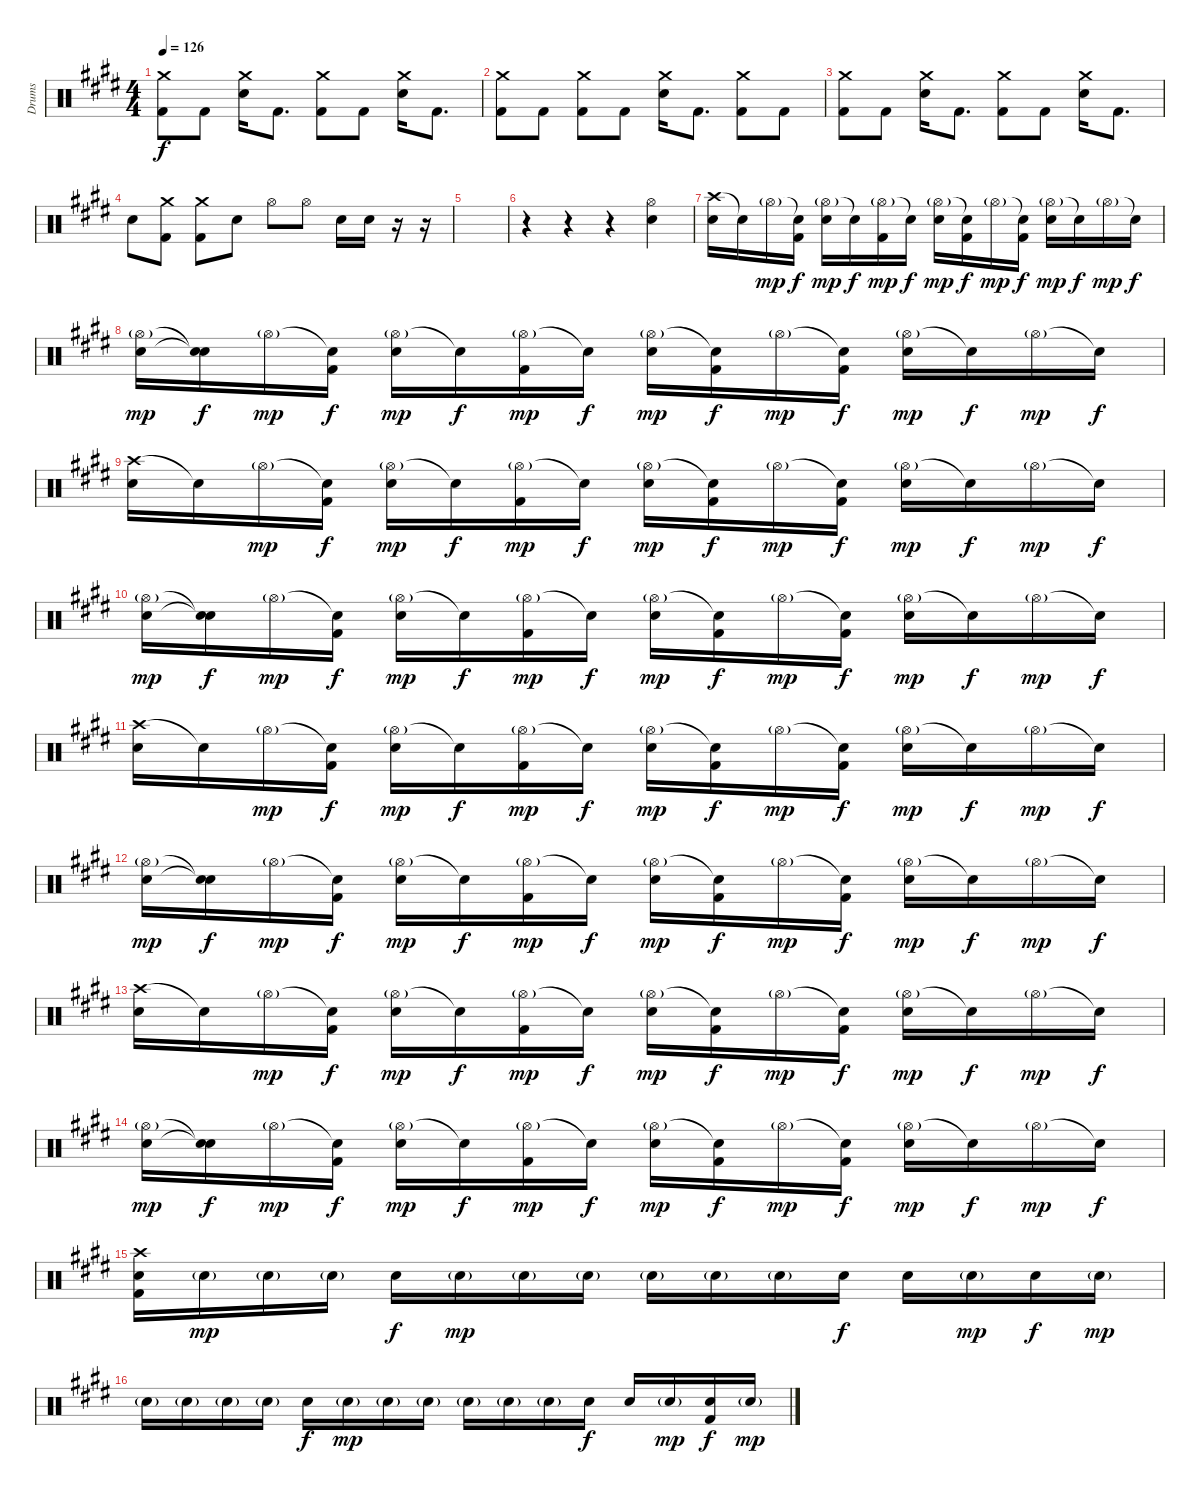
\track ("Drums" "Drums") {instrument percussion}
\staff {score}
\articulation defaults
\ts (4 4)
\tempo 126
\clef neutral
\ks e
("Crash medium (hit)" "Kick (hit) 2").8{dy f} "Kick (hit) 2".8 ("Crash medium (hit)" "Snare (hit) 2").16 "Kick (hit) 2".8{d} ("Crash medium (hit)" "Kick (hit) 2").8 "Kick (hit) 2".8 ("Crash medium (hit)" "Snare (hit) 2").16 "Kick (hit) 2".8{d} |
("Crash medium (hit)" "Kick (hit) 2").8 "Kick (hit) 2".8 ("Crash medium (hit)" "Kick (hit) 2").8 "Kick (hit) 2".8 ("Crash medium (hit)" "Snare (hit) 2").16 "Kick (hit) 2".8{d} ("Crash medium (hit)" "Kick (hit) 2").8 "Kick (hit) 2".8 |
("Crash medium (hit)" "Kick (hit) 2").8 "Kick (hit) 2".8 ("Crash medium (hit)" "Snare (hit) 2").16 "Kick (hit) 2".8{d} ("Crash medium (hit)" "Kick (hit) 2").8 "Kick (hit) 2".8 ("Crash medium (hit)" "Snare (hit) 2").16 "Kick (hit) 2".8{d} |
"Snare (hit) 2".8 ("Crash medium (hit)" "Kick (hit) 2").8 ("Crash medium (hit)" "Kick (hit) 2").8 "Snare (hit) 2".8 "Hi-Hat (open)".8 "Hi-Hat (open)".8 "Snare (hit) 2".16 "Snare (hit) 2".16 r.16 r.16 |
|
r.4 r.4 r.4 ("Hi-Hat (open)" "Snare (hit) 2").4 |
("Crash high (hit)" "Snare (hit) 2").16 "Snare (hit)"{t}.16 "Hi-Hat (open)"{g}.16{dy mp} ("Snare (hit)"{t} "Kick (hit) 2").16{dy f} ("Hi-Hat (open)"{g} "Snare (hit) 2").16{dy mp} "Snare (hit)"{t}.16{dy f} ("Hi-Hat (open)"{g} "Kick (hit) 2").16{dy mp} "Snare (hit)"{t}.16{dy f} ("Hi-Hat (open)"{g} "Snare (hit) 2").16{dy mp} ("Snare (hit)"{t} "Kick (hit) 2").16{dy f} "Hi-Hat (open)"{g}.16{dy mp} ("Snare (hit)"{t} "Kick (hit) 2").16{dy f} ("Hi-Hat (open)"{g} "Snare (hit) 2").16{dy mp} "Snare (hit)"{t}.16{dy f} "Hi-Hat (open)"{g}.16{dy mp} "Snare (hit)"{t}.16{dy f} |
("Hi-Hat (open)"{g} "Snare (hit) 2").16{dy mp} ("Snare (hit)"{t} "Snare (hit)"{t}).16{dy f} "Hi-Hat (open)"{g}.16{dy mp} ("Snare (hit)"{t} "Kick (hit) 2").16{dy f} ("Hi-Hat (open)"{g} "Snare (hit) 2").16{dy mp} "Snare (hit)"{t}.16{dy f} ("Hi-Hat (open)"{g} "Kick (hit) 2").16{dy mp} "Snare (hit)"{t}.16{dy f} ("Hi-Hat (open)"{g} "Snare (hit) 2").16{dy mp} ("Snare (hit)"{t} "Kick (hit) 2").16{dy f} "Hi-Hat (open)"{g}.16{dy mp} ("Snare (hit)"{t} "Kick (hit) 2").16{dy f} ("Hi-Hat (open)"{g} "Snare (hit) 2").16{dy mp} "Snare (hit)"{t}.16{dy f} "Hi-Hat (open)"{g}.16{dy mp} "Snare (hit)"{t}.16{dy f} |
("Crash high (hit)" "Snare (hit) 2").16 "Snare (hit)"{t}.16 "Hi-Hat (open)"{g}.16{dy mp} ("Snare (hit)"{t} "Kick (hit) 2").16{dy f} ("Hi-Hat (open)"{g} "Snare (hit) 2").16{dy mp} "Snare (hit)"{t}.16{dy f} ("Hi-Hat (open)"{g} "Kick (hit) 2").16{dy mp} "Snare (hit)"{t}.16{dy f} ("Hi-Hat (open)"{g} "Snare (hit) 2").16{dy mp} ("Snare (hit)"{t} "Kick (hit) 2").16{dy f} "Hi-Hat (open)"{g}.16{dy mp} ("Snare (hit)"{t} "Kick (hit) 2").16{dy f} ("Hi-Hat (open)"{g} "Snare (hit) 2").16{dy mp} "Snare (hit)"{t}.16{dy f} "Hi-Hat (open)"{g}.16{dy mp} "Snare (hit)"{t}.16{dy f} |
("Hi-Hat (open)"{g} "Snare (hit) 2").16{dy mp} ("Snare (hit)"{t} "Snare (hit)"{t}).16{dy f} "Hi-Hat (open)"{g}.16{dy mp} ("Snare (hit)"{t} "Kick (hit) 2").16{dy f} ("Hi-Hat (open)"{g} "Snare (hit) 2").16{dy mp} "Snare (hit)"{t}.16{dy f} ("Hi-Hat (open)"{g} "Kick (hit) 2").16{dy mp} "Snare (hit)"{t}.16{dy f} ("Hi-Hat (open)"{g} "Snare (hit) 2").16{dy mp} ("Snare (hit)"{t} "Kick (hit) 2").16{dy f} "Hi-Hat (open)"{g}.16{dy mp} ("Snare (hit)"{t} "Kick (hit) 2").16{dy f} ("Hi-Hat (open)"{g} "Snare (hit) 2").16{dy mp} "Snare (hit)"{t}.16{dy f} "Hi-Hat (open)"{g}.16{dy mp} "Snare (hit)"{t}.16{dy f} |
("Crash high (hit)" "Snare (hit) 2").16 "Snare (hit)"{t}.16 "Hi-Hat (open)"{g}.16{dy mp} ("Snare (hit)"{t} "Kick (hit) 2").16{dy f} ("Hi-Hat (open)"{g} "Snare (hit) 2").16{dy mp} "Snare (hit)"{t}.16{dy f} ("Hi-Hat (open)"{g} "Kick (hit) 2").16{dy mp} "Snare (hit)"{t}.16{dy f} ("Hi-Hat (open)"{g} "Snare (hit) 2").16{dy mp} ("Snare (hit)"{t} "Kick (hit) 2").16{dy f} "Hi-Hat (open)"{g}.16{dy mp} ("Snare (hit)"{t} "Kick (hit) 2").16{dy f} ("Hi-Hat (open)"{g} "Snare (hit) 2").16{dy mp} "Snare (hit)"{t}.16{dy f} "Hi-Hat (open)"{g}.16{dy mp} "Snare (hit)"{t}.16{dy f} |
("Hi-Hat (open)"{g} "Snare (hit) 2").16{dy mp} ("Snare (hit)"{t} "Snare (hit)"{t}).16{dy f} "Hi-Hat (open)"{g}.16{dy mp} ("Snare (hit)"{t} "Kick (hit) 2").16{dy f} ("Hi-Hat (open)"{g} "Snare (hit) 2").16{dy mp} "Snare (hit)"{t}.16{dy f} ("Hi-Hat (open)"{g} "Kick (hit) 2").16{dy mp} "Snare (hit)"{t}.16{dy f} ("Hi-Hat (open)"{g} "Snare (hit) 2").16{dy mp} ("Snare (hit)"{t} "Kick (hit) 2").16{dy f} "Hi-Hat (open)"{g}.16{dy mp} ("Snare (hit)"{t} "Kick (hit) 2").16{dy f} ("Hi-Hat (open)"{g} "Snare (hit) 2").16{dy mp} "Snare (hit)"{t}.16{dy f} "Hi-Hat (open)"{g}.16{dy mp} "Snare (hit)"{t}.16{dy f} |
("Crash high (hit)" "Snare (hit) 2").16 "Snare (hit)"{t}.16 "Hi-Hat (open)"{g}.16{dy mp} ("Snare (hit)"{t} "Kick (hit) 2").16{dy f} ("Hi-Hat (open)"{g} "Snare (hit) 2").16{dy mp} "Snare (hit)"{t}.16{dy f} ("Hi-Hat (open)"{g} "Kick (hit) 2").16{dy mp} "Snare (hit)"{t}.16{dy f} ("Hi-Hat (open)"{g} "Snare (hit) 2").16{dy mp} ("Snare (hit)"{t} "Kick (hit) 2").16{dy f} "Hi-Hat (open)"{g}.16{dy mp} ("Snare (hit)"{t} "Kick (hit) 2").16{dy f} ("Hi-Hat (open)"{g} "Snare (hit) 2").16{dy mp} "Snare (hit)"{t}.16{dy f} "Hi-Hat (open)"{g}.16{dy mp} "Snare (hit)"{t}.16{dy f} |
("Hi-Hat (open)"{g} "Snare (hit) 2").16{dy mp} ("Snare (hit)"{t} "Snare (hit)"{t}).16{dy f} "Hi-Hat (open)"{g}.16{dy mp} ("Snare (hit)"{t} "Kick (hit) 2").16{dy f} ("Hi-Hat (open)"{g} "Snare (hit) 2").16{dy mp} "Snare (hit)"{t}.16{dy f} ("Hi-Hat (open)"{g} "Kick (hit) 2").16{dy mp} "Snare (hit)"{t}.16{dy f} ("Hi-Hat (open)"{g} "Snare (hit) 2").16{dy mp} ("Snare (hit)"{t} "Kick (hit) 2").16{dy f} "Hi-Hat (open)"{g}.16{dy mp} ("Snare (hit)"{t} "Kick (hit) 2").16{dy f} ("Hi-Hat (open)"{g} "Snare (hit) 2").16{dy mp} "Snare (hit)"{t}.16{dy f} "Hi-Hat (open)"{g}.16{dy mp} "Snare (hit)"{t}.16{dy f} |
("Crash high (hit)" "Snare (hit) 2" "Kick (hit) 2").16 "Snare (hit) 2"{g}.16{dy mp} "Snare (hit) 2"{g}.16 "Snare (hit) 2"{g}.16 "Snare (hit) 2".16{dy f} "Snare (hit) 2"{g}.16{dy mp} "Snare (hit) 2"{g}.16 "Snare (hit) 2"{g}.16 "Snare (hit) 2"{g}.16 "Snare (hit) 2"{g}.16 "Snare (hit) 2"{g}.16 "Snare (hit) 2".16{dy f} "Snare (hit) 2".16 "Snare (hit) 2"{g}.16{dy mp} "Snare (hit) 2".16{dy f} "Snare (hit) 2"{g}.16{dy mp} |
"Snare (hit) 2"{g}.16 "Snare (hit) 2"{g}.16 "Snare (hit) 2"{g}.16 "Snare (hit) 2"{g}.16 "Snare (hit) 2".16{dy f} "Snare (hit) 2"{g}.16{dy mp} "Snare (hit) 2"{g}.16 "Snare (hit) 2"{g}.16 "Snare (hit) 2"{g}.16 "Snare (hit) 2"{g}.16 "Snare (hit) 2"{g}.16 "Snare (hit) 2".16{dy f} "Snare (hit) 2".16 "Snare (hit) 2"{g}.16{dy mp} ("Snare (hit) 2" "Kick (hit) 2").16{dy f} "Snare (hit) 2"{g}.16{dy mp}
